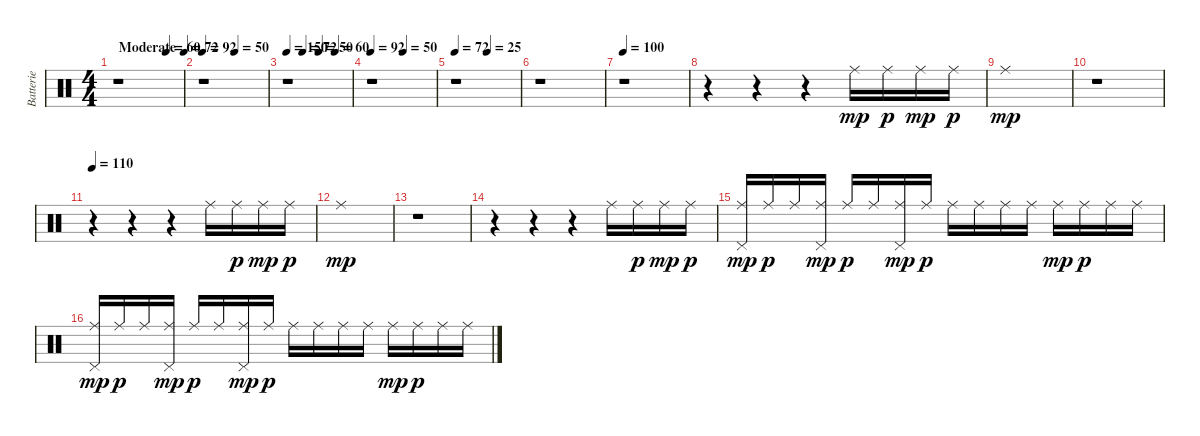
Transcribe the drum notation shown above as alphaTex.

\track ("Batterie" "Batterie") {instrument percussion}
\staff {score}
\articulation defaults
\ts (4 4)
\tempo (72 "Moderate")
\tempo (60 0.75)
\tempo (72 "Moderate")
\clef neutral
\ks c
r.1{dy mp} |
\tempo 92
\tempo (50 0.5)
r.1 |
\tempo 150
\tempo (72 0.25)
\tempo (50 0.5)
\tempo (60 0.75)
r.1 |
\tempo 92
\tempo (50 0.5)
r.1 |
\tempo 72
\tempo (25 0.5)
r.1 |
r.1 |
\tempo 100
r.1 |
r.4 r.4 r.4 "Ride (middle)".16 "Ride (middle)".16{dy p} "Ride (middle)".16{dy mp} "Ride (middle)".16{dy p} |
"Ride (middle)".1{dy mp} |
r.1 |
\tempo 110
r.4 r.4 r.4 "Ride (middle)".16 "Ride (middle)".16{dy p} "Ride (middle)".16{dy mp} "Ride (middle)".16{dy p} |
"Ride (middle)".1{dy mp} |
r.1 |
r.4 r.4 r.4 "Ride (middle)".16 "Ride (middle)".16{dy p} "Ride (middle)".16{dy mp} "Ride (middle)".16{dy p} |
("Ride (middle)" "Pedal Hi-Hat (hit)").16{dy mp} "Ride (middle)".16{dy p} "Ride (middle)".16 ("Ride (middle)" "Pedal Hi-Hat (hit)").16{dy mp} "Ride (middle)".16{dy p} "Ride (middle)".16 ("Ride (middle)" "Pedal Hi-Hat (hit)").16{dy mp} "Ride (middle)".16{dy p} "Ride (middle)".16 "Ride (middle)".16 "Ride (middle)".16 "Ride (middle)".16 "Ride (middle)".16{dy mp} "Ride (middle)".16{dy p} "Ride (middle)".16 "Ride (middle)".16 |
("Ride (middle)" "Pedal Hi-Hat (hit)").16{dy mp} "Ride (middle)".16{dy p} "Ride (middle)".16 ("Ride (middle)" "Pedal Hi-Hat (hit)").16{dy mp} "Ride (middle)".16{dy p} "Ride (middle)".16 ("Ride (middle)" "Pedal Hi-Hat (hit)").16{dy mp} "Ride (middle)".16{dy p} "Ride (middle)".16 "Ride (middle)".16 "Ride (middle)".16 "Ride (middle)".16 "Ride (middle)".16{dy mp} "Ride (middle)".16{dy p} "Ride (middle)".16 "Ride (middle)".16
